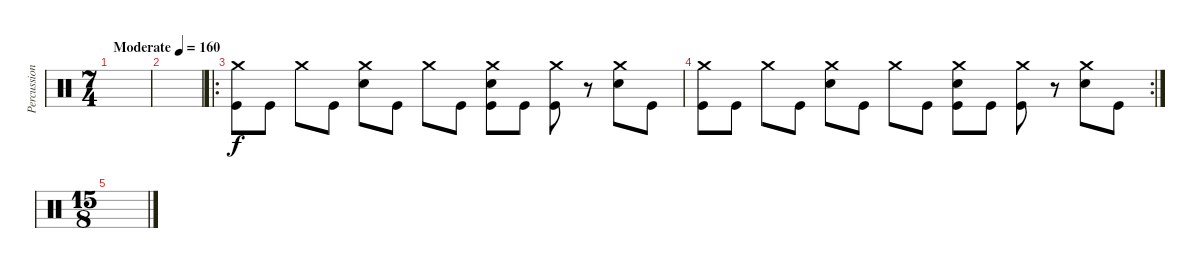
\track ("Percussion" "Percussion") {instrument percussion}
\staff {score}
\articulation defaults
\ts (7 4)
\tempo (160 "Moderate")
\clef neutral
\ks c
|
|
\ro
("Crash medium (hit)" "Kick (hit)").8 "Kick (hit)".8 "Crash medium (hit)".8 "Kick (hit)".8 ("Crash medium (hit)" "Snare (hit) 2").8 "Kick (hit)".8 "Crash medium (hit)".8 "Kick (hit)".8 ("Crash medium (hit)" "Snare (hit) 2" "Kick (hit)").8 "Kick (hit)".8 ("Crash medium (hit)" "Kick (hit)").8 r.8 ("Crash medium (hit)" "Snare (hit) 2").8 "Kick (hit)".8 |
\rc 2
("Crash medium (hit)" "Kick (hit)").8 "Kick (hit)".8 "Crash medium (hit)".8 "Kick (hit)".8 ("Crash medium (hit)" "Snare (hit) 2").8 "Kick (hit)".8 "Crash medium (hit)".8 "Kick (hit)".8 ("Crash medium (hit)" "Snare (hit) 2" "Kick (hit)").8 "Kick (hit)".8 ("Crash medium (hit)" "Kick (hit)").8 r.8 ("Crash medium (hit)" "Snare (hit) 2").8 "Kick (hit)".8 |
\ts (15 8)
